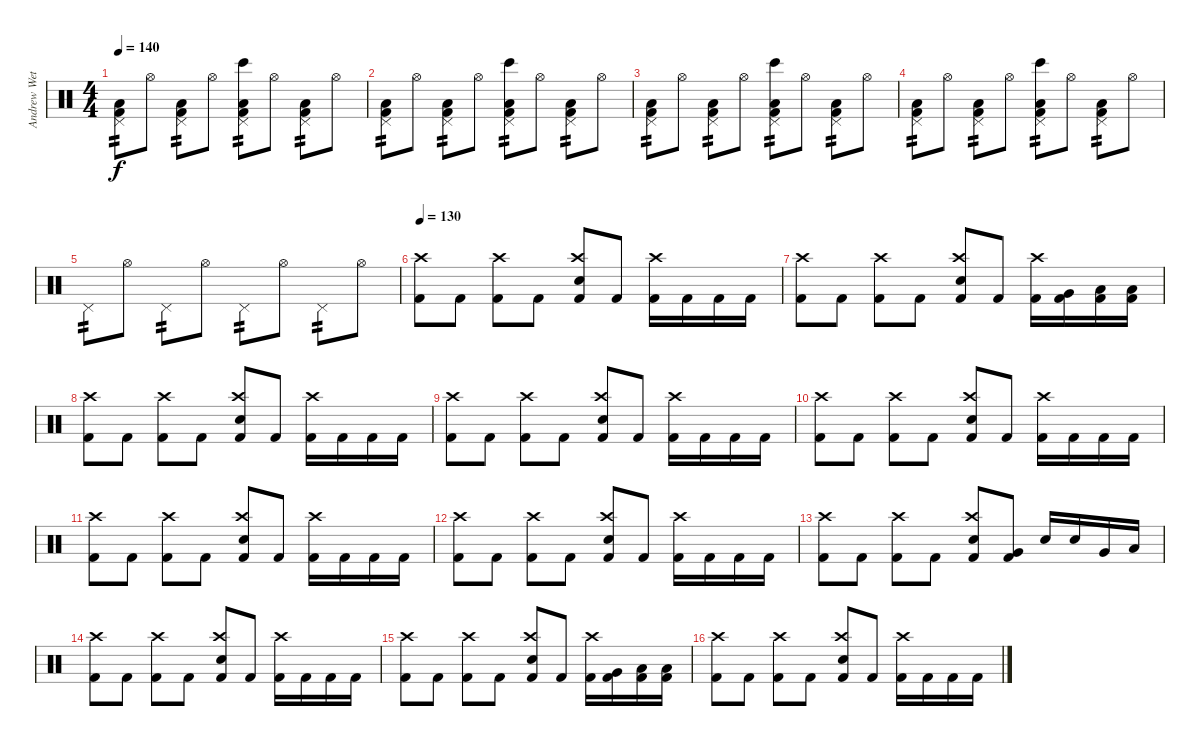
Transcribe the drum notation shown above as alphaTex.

\track ("Andrew Wetzel" "Andrew Wet") {instrument percussion}
\staff {score}
\articulation defaults
\ts (4 4)
\tempo 140
\clef neutral
\ks c
("Pedal Hi-Hat (hit)" "Kick (hit) 2" "Low Floor Tom (hit)").8{tp 2 dy f volume 11} "Hi-Hat (open)".8 ("Pedal Hi-Hat (hit)" "Kick (hit) 2" "Low Floor Tom (hit)").8{tp 2} "Hi-Hat (open)".8 ("Pedal Hi-Hat (hit)" "Bongo High (hit)" "Kick (hit) 2" "Low Floor Tom (hit)").8{tp 2} "Hi-Hat (open)".8 ("Pedal Hi-Hat (hit)" "Kick (hit) 2" "Low Floor Tom (hit)").8{tp 2} "Hi-Hat (open)".8 |
("Pedal Hi-Hat (hit)" "Kick (hit) 2" "Low Floor Tom (hit)").8{tp 2} "Hi-Hat (open)".8 ("Pedal Hi-Hat (hit)" "Kick (hit) 2" "Low Floor Tom (hit)").8{tp 2} "Hi-Hat (open)".8 ("Pedal Hi-Hat (hit)" "Bongo High (hit)" "Kick (hit) 2" "Low Floor Tom (hit)").8{tp 2} "Hi-Hat (open)".8 ("Pedal Hi-Hat (hit)" "Kick (hit) 2" "Low Floor Tom (hit)").8{tp 2} "Hi-Hat (open)".8 |
("Pedal Hi-Hat (hit)" "Kick (hit) 2" "Low Floor Tom (hit)").8{tp 2} "Hi-Hat (open)".8 ("Pedal Hi-Hat (hit)" "Kick (hit) 2" "Low Floor Tom (hit)").8{tp 2} "Hi-Hat (open)".8 ("Pedal Hi-Hat (hit)" "Bongo High (hit)" "Kick (hit) 2" "Low Floor Tom (hit)").8{tp 2} "Hi-Hat (open)".8 ("Pedal Hi-Hat (hit)" "Kick (hit) 2" "Low Floor Tom (hit)").8{tp 2} "Hi-Hat (open)".8 |
("Pedal Hi-Hat (hit)" "Kick (hit) 2" "Low Floor Tom (hit)").8{tp 2} "Hi-Hat (open)".8 ("Pedal Hi-Hat (hit)" "Kick (hit) 2" "Low Floor Tom (hit)").8{tp 2} "Hi-Hat (open)".8 ("Pedal Hi-Hat (hit)" "Bongo High (hit)" "Kick (hit) 2" "Low Floor Tom (hit)").8{tp 2} "Hi-Hat (open)".8 ("Pedal Hi-Hat (hit)" "Kick (hit) 2" "Low Floor Tom (hit)").8{tp 2} "Hi-Hat (open)".8 |
"Pedal Hi-Hat (hit)".8{tp 2} "Hi-Hat (open)".8 "Pedal Hi-Hat (hit)".8{tp 2} "Hi-Hat (open)".8 "Pedal Hi-Hat (hit)".8{tp 2} "Hi-Hat (open)".8 "Pedal Hi-Hat (hit)".8{tp 2} "Hi-Hat (open)".8 |
\tempo 130
("Crash high (hit)" "Kick (hit) 2").8{volume 12} "Kick (hit) 2".8 ("Crash high (hit)" "Kick (hit) 2").8 "Kick (hit) 2".8 ("Crash high (hit)" "Electric Snare (hit)" "Kick (hit) 2").8 "Kick (hit) 2".8 ("Crash high (hit)" "Kick (hit) 2").16 "Kick (hit) 2".16 "Kick (hit) 2".16 "Kick (hit) 2".16 |
("Crash high (hit)" "Kick (hit) 2").8 "Kick (hit) 2".8 ("Crash high (hit)" "Kick (hit) 2").8 "Kick (hit) 2".8 ("Crash high (hit)" "Electric Snare (hit)" "Kick (hit) 2").8 "Kick (hit) 2".8 ("Crash high (hit)" "Kick (hit) 2").16 ("Very Low Tom (hit)" "Kick (hit) 2").16 ("Low Tom (hit)" "Kick (hit) 2").16 ("Low Tom (hit)" "Kick (hit) 2").16 |
("Crash high (hit)" "Kick (hit) 2").8 "Kick (hit) 2".8 ("Crash high (hit)" "Kick (hit) 2").8 "Kick (hit) 2".8 ("Crash high (hit)" "Electric Snare (hit)" "Kick (hit) 2").8 "Kick (hit) 2".8 ("Crash high (hit)" "Kick (hit) 2").16 "Kick (hit) 2".16 "Kick (hit) 2".16 "Kick (hit) 2".16 |
("Crash high (hit)" "Kick (hit) 2").8 "Kick (hit) 2".8 ("Crash high (hit)" "Kick (hit) 2").8 "Kick (hit) 2".8 ("Crash high (hit)" "Electric Snare (hit)" "Kick (hit) 2").8 "Kick (hit) 2".8 ("Crash high (hit)" "Kick (hit) 2").16 "Kick (hit) 2".16 "Kick (hit) 2".16 "Kick (hit) 2".16 |
("Crash high (hit)" "Kick (hit) 2").8 "Kick (hit) 2".8 ("Crash high (hit)" "Kick (hit) 2").8 "Kick (hit) 2".8 ("Crash high (hit)" "Electric Snare (hit)" "Kick (hit) 2").8 "Kick (hit) 2".8 ("Crash high (hit)" "Kick (hit) 2").16 "Kick (hit) 2".16 "Kick (hit) 2".16 "Kick (hit) 2".16 |
("Crash high (hit)" "Kick (hit) 2").8 "Kick (hit) 2".8 ("Crash high (hit)" "Kick (hit) 2").8 "Kick (hit) 2".8 ("Crash high (hit)" "Electric Snare (hit)" "Kick (hit) 2").8 "Kick (hit) 2".8 ("Crash high (hit)" "Kick (hit) 2").16 "Kick (hit) 2".16 "Kick (hit) 2".16 "Kick (hit) 2".16 |
("Crash high (hit)" "Kick (hit) 2").8 "Kick (hit) 2".8 ("Crash high (hit)" "Kick (hit) 2").8 "Kick (hit) 2".8 ("Crash high (hit)" "Electric Snare (hit)" "Kick (hit) 2").8 "Kick (hit) 2".8 ("Crash high (hit)" "Kick (hit) 2").16 "Kick (hit) 2".16 "Kick (hit) 2".16 "Kick (hit) 2".16 |
("Crash high (hit)" "Kick (hit) 2").8 "Kick (hit) 2".8 ("Crash high (hit)" "Kick (hit) 2").8 "Kick (hit) 2".8 ("Crash high (hit)" "Electric Snare (hit)" "Kick (hit) 2").8 ("Very Low Tom (hit)" "Kick (hit) 2").8 "Electric Snare (hit)".16 "Electric Snare (hit)".16 "Very Low Tom (hit)".16 "Low Tom (hit)".16 |
("Crash high (hit)" "Kick (hit) 2").8 "Kick (hit) 2".8 ("Crash high (hit)" "Kick (hit) 2").8 "Kick (hit) 2".8 ("Crash high (hit)" "Electric Snare (hit)" "Kick (hit) 2").8 "Kick (hit) 2".8 ("Crash high (hit)" "Kick (hit) 2").16 "Kick (hit) 2".16 "Kick (hit) 2".16 "Kick (hit) 2".16 |
("Crash high (hit)" "Kick (hit) 2").8 "Kick (hit) 2".8 ("Crash high (hit)" "Kick (hit) 2").8 "Kick (hit) 2".8 ("Crash high (hit)" "Electric Snare (hit)" "Kick (hit) 2").8 "Kick (hit) 2".8 ("Crash high (hit)" "Kick (hit) 2").16 ("Very Low Tom (hit)" "Kick (hit) 2").16 ("Low Tom (hit)" "Kick (hit) 2").16 ("Low Tom (hit)" "Kick (hit) 2").16 |
("Crash high (hit)" "Kick (hit) 2").8 "Kick (hit) 2".8 ("Crash high (hit)" "Kick (hit) 2").8 "Kick (hit) 2".8 ("Crash high (hit)" "Electric Snare (hit)" "Kick (hit) 2").8 "Kick (hit) 2".8 ("Crash high (hit)" "Kick (hit) 2").16 "Kick (hit) 2".16 "Kick (hit) 2".16 "Kick (hit) 2".16
